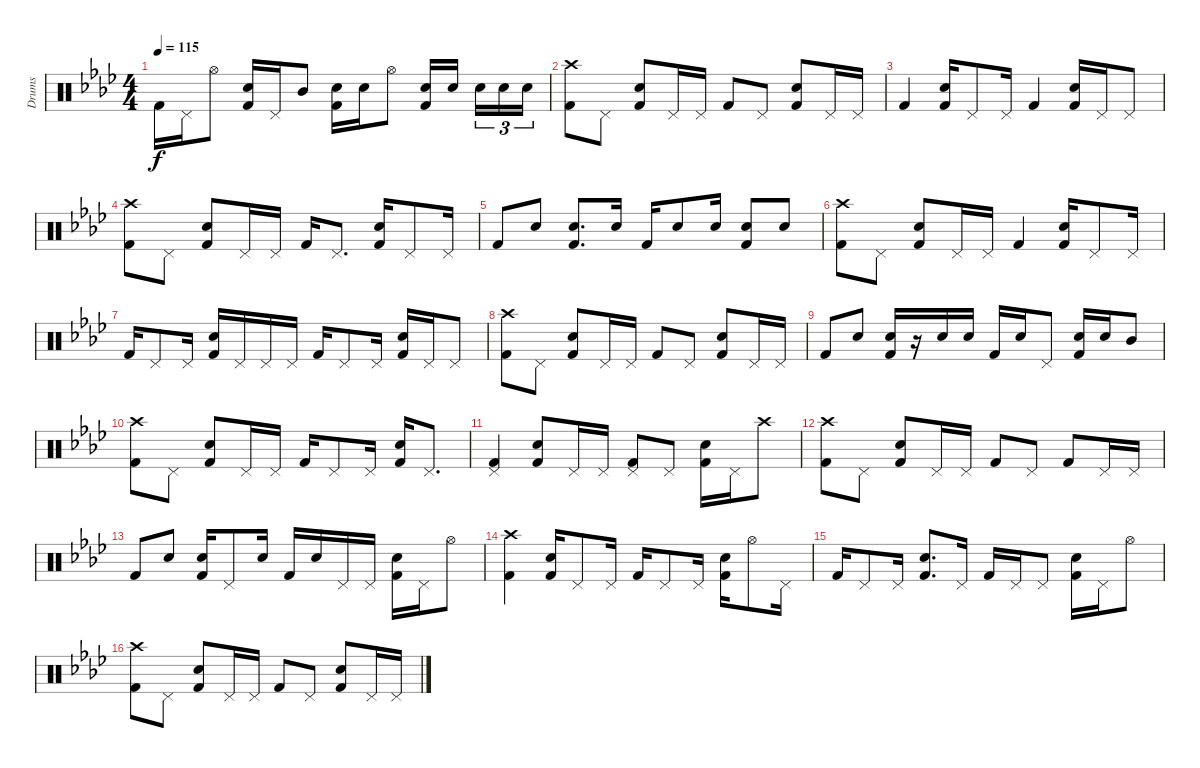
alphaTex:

\track ("Drums" "Drums") {instrument percussion}
\staff {score}
\articulation defaults
\ts (4 4)
\tempo 115
\clef neutral
\ks ab "Kick (hit) 2".16{dy f} "Pedal Hi-Hat (hit)".16 "Hi-Hat (open)".8
("Electric Snare (hit)" "Kick (hit) 2").16 "Pedal Hi-Hat (hit)".16 "Mid Tom (hit)".8 ("Electric Snare (hit)" "Kick (hit) 2").16 "Electric Snare (hit)".16 "Hi-Hat (open)".8 ("Electric Snare (hit)" "Kick (hit) 2").16 "Electric Snare (hit)".16{beam splitsecondary} "Electric Snare (hit)".16{tu (3 2)} "Electric Snare (hit)".16{tu (3 2)} "Electric Snare (hit)".16{tu (3 2)} |
("Crash high (hit)" "Kick (hit) 2").8 "Pedal Hi-Hat (hit)".8 ("Electric Snare (hit)" "Kick (hit) 2").8 "Pedal Hi-Hat (hit)".16 "Pedal Hi-Hat (hit)".16 "Kick (hit) 2".8 "Pedal Hi-Hat (hit)".8 ("Electric Snare (hit)" "Kick (hit) 2").8 "Pedal Hi-Hat (hit)".16 "Pedal Hi-Hat (hit)".16 |
"Kick (hit) 2".4 ("Electric Snare (hit)" "Kick (hit) 2").16 "Pedal Hi-Hat (hit)".8 "Pedal Hi-Hat (hit)".16 "Kick (hit) 2".4 ("Electric Snare (hit)" "Kick (hit) 2").16 "Pedal Hi-Hat (hit)".16 "Pedal Hi-Hat (hit)".8 |
("Crash high (hit)" "Kick (hit) 2").8 "Pedal Hi-Hat (hit)".8 ("Electric Snare (hit)" "Kick (hit) 2").8 "Pedal Hi-Hat (hit)".16 "Pedal Hi-Hat (hit)".16 "Kick (hit) 2".16 "Pedal Hi-Hat (hit)".8{d} ("Electric Snare (hit)" "Kick (hit) 2").16 "Pedal Hi-Hat (hit)".8 "Pedal Hi-Hat (hit)".16 |
"Kick (hit) 2".8 "Electric Snare (hit)".8 ("Electric Snare (hit)" "Kick (hit) 2").8{d} "Electric Snare (hit)".16 "Kick (hit) 2".16 "Electric Snare (hit)".8 "Electric Snare (hit)".16 ("Electric Snare (hit)" "Kick (hit) 2").8 "Electric Snare (hit)".8 |
("Crash high (hit)" "Kick (hit) 2").8 "Pedal Hi-Hat (hit)".8 ("Electric Snare (hit)" "Kick (hit) 2").8 "Pedal Hi-Hat (hit)".16 "Pedal Hi-Hat (hit)".16 "Kick (hit) 2".4 ("Electric Snare (hit)" "Kick (hit) 2").16 "Pedal Hi-Hat (hit)".8 "Pedal Hi-Hat (hit)".16 |
"Kick (hit) 2".16 "Pedal Hi-Hat (hit)".8 "Pedal Hi-Hat (hit)".16 ("Electric Snare (hit)" "Kick (hit) 2").16 "Pedal Hi-Hat (hit)".16 "Pedal Hi-Hat (hit)".16 "Pedal Hi-Hat (hit)".16 "Kick (hit) 2".16 "Pedal Hi-Hat (hit)".8 "Pedal Hi-Hat (hit)".16 ("Electric Snare (hit)" "Kick (hit) 2").16 "Pedal Hi-Hat (hit)".16 "Pedal Hi-Hat (hit)".8 |
("Crash high (hit)" "Kick (hit) 2").8 "Pedal Hi-Hat (hit)".8 ("Electric Snare (hit)" "Kick (hit) 2").8 "Pedal Hi-Hat (hit)".16 "Pedal Hi-Hat (hit)".16 "Kick (hit) 2".8 "Pedal Hi-Hat (hit)".8 ("Electric Snare (hit)" "Kick (hit) 2").8 "Pedal Hi-Hat (hit)".16 "Pedal Hi-Hat (hit)".16 |
"Kick (hit) 2".8 "Electric Snare (hit)".8 ("Electric Snare (hit)" "Kick (hit) 2").16 r.16 "Electric Snare (hit)".16 "Electric Snare (hit)".16 "Kick (hit) 2".16 "Electric Snare (hit)".16 "Pedal Hi-Hat (hit)".8 ("Electric Snare (hit)" "Kick (hit) 2").16 "Electric Snare (hit)".16 "Mid Tom (hit)".8 |
("Crash high (hit)" "Kick (hit) 2").8 "Pedal Hi-Hat (hit)".8 ("Electric Snare (hit)" "Kick (hit) 2").8 "Pedal Hi-Hat (hit)".16 "Pedal Hi-Hat (hit)".16 "Kick (hit) 2".16 "Pedal Hi-Hat (hit)".8 "Pedal Hi-Hat (hit)".16 ("Electric Snare (hit)" "Kick (hit) 2").16 "Pedal Hi-Hat (hit)".8{d} |
("Pedal Hi-Hat (hit)" "Kick (hit) 2").4 ("Electric Snare (hit)" "Kick (hit) 2").8 "Pedal Hi-Hat (hit)".16 "Pedal Hi-Hat (hit)".16 ("Pedal Hi-Hat (hit)" "Kick (hit) 2").8 "Pedal Hi-Hat (hit)".8 ("Electric Snare (hit)" "Kick (hit) 2").16 "Pedal Hi-Hat (hit)".16 "Crash high (hit)".8 |
("Crash high (hit)" "Kick (hit) 2").8 "Pedal Hi-Hat (hit)".8 ("Electric Snare (hit)" "Kick (hit) 2").8 "Pedal Hi-Hat (hit)".16 "Pedal Hi-Hat (hit)".16 "Kick (hit) 2".8 "Pedal Hi-Hat (hit)".8 "Kick (hit) 2".8 "Pedal Hi-Hat (hit)".16 "Pedal Hi-Hat (hit)".16 |
"Kick (hit) 2".8 "Electric Snare (hit)".8 ("Electric Snare (hit)" "Kick (hit) 2").16 "Pedal Hi-Hat (hit)".8 "Electric Snare (hit)".16 "Kick (hit) 2".16 "Electric Snare (hit)".16 "Pedal Hi-Hat (hit)".16 "Pedal Hi-Hat (hit)".16 ("Electric Snare (hit)" "Kick (hit) 2").16 "Pedal Hi-Hat (hit)".16 "Hi-Hat (open)".8 |
("Crash high (hit)" "Kick (hit) 2").4 ("Electric Snare (hit)" "Kick (hit) 2").16 "Pedal Hi-Hat (hit)".8 "Pedal Hi-Hat (hit)".16 "Kick (hit) 2".16 "Pedal Hi-Hat (hit)".8 "Pedal Hi-Hat (hit)".16 ("Electric Snare (hit)" "Kick (hit) 2").16 "Hi-Hat (open)".8 "Pedal Hi-Hat (hit)".16 |
"Kick (hit) 2".16 "Pedal Hi-Hat (hit)".8 "Pedal Hi-Hat (hit)".16 ("Electric Snare (hit)" "Kick (hit) 2").8{d} "Pedal Hi-Hat (hit)".16 "Kick (hit) 2".16 "Pedal Hi-Hat (hit)".16 "Pedal Hi-Hat (hit)".8 ("Electric Snare (hit)" "Kick (hit) 2").16 "Pedal Hi-Hat (hit)".16 "Hi-Hat (open)".8 |
("Crash high (hit)" "Kick (hit) 2").8 "Pedal Hi-Hat (hit)".8 ("Electric Snare (hit)" "Kick (hit) 2").8 "Pedal Hi-Hat (hit)".16 "Pedal Hi-Hat (hit)".16 "Kick (hit) 2".8 "Pedal Hi-Hat (hit)".8 ("Electric Snare (hit)" "Kick (hit) 2").8 "Pedal Hi-Hat (hit)".16 "Pedal Hi-Hat (hit)".16
